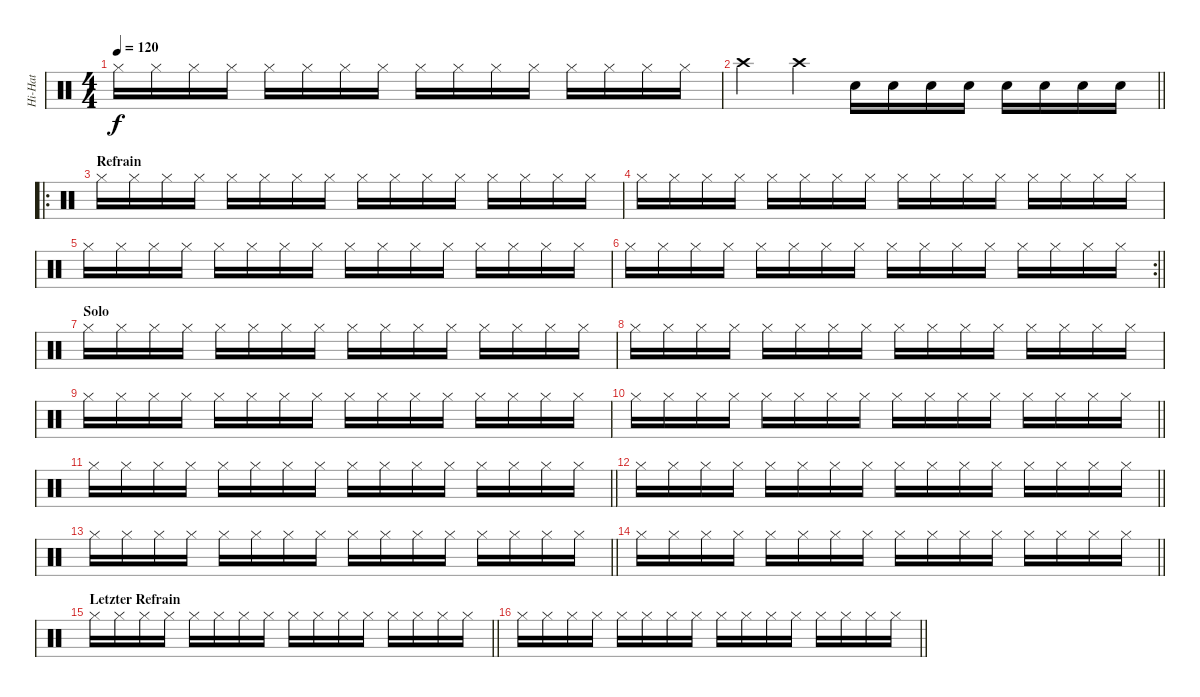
\track ("Hi-Hat" "Hi-Hat") {instrument percussion}
\staff {score}
\articulation defaults
\ts (4 4)
\tempo 120
\clef neutral
\ks c "Hi-Hat (closed)".16{dy f} "Hi-Hat (closed)".16 "Hi-Hat (closed)".16 "Hi-Hat (closed)".16 "Hi-Hat (closed)".16 "Hi-Hat (closed)".16 "Hi-Hat (closed)".16 "Hi-Hat (closed)".16 "Hi-Hat (closed)".16 "Hi-Hat (closed)".16 "Hi-Hat (closed)".16 "Hi-Hat (closed)".16 "Hi-Hat (closed)".16 "Hi-Hat (closed)".16 "Hi-Hat (closed)".16 "Hi-Hat (closed)".16
|
\barLineRight lightlight "Crash high (hit)".4 "Crash high (hit)".4 "Electric Snare (hit)".16 "Electric Snare (hit)".16 "Electric Snare (hit)".16 "Electric Snare (hit)".16 "Electric Snare (hit)".16 "Electric Snare (hit)".16 "Electric Snare (hit)".16 "Electric Snare (hit)".16
|
\ro
\section ("" "Refrain")
"Hi-Hat (closed)".16 "Hi-Hat (closed)".16 "Hi-Hat (closed)".16 "Hi-Hat (closed)".16 "Hi-Hat (closed)".16 "Hi-Hat (closed)".16 "Hi-Hat (closed)".16 "Hi-Hat (closed)".16 "Hi-Hat (closed)".16 "Hi-Hat (closed)".16 "Hi-Hat (closed)".16 "Hi-Hat (closed)".16 "Hi-Hat (closed)".16 "Hi-Hat (closed)".16 "Hi-Hat (closed)".16 "Hi-Hat (closed)".16 |
"Hi-Hat (closed)".16 "Hi-Hat (closed)".16 "Hi-Hat (closed)".16 "Hi-Hat (closed)".16 "Hi-Hat (closed)".16 "Hi-Hat (closed)".16 "Hi-Hat (closed)".16 "Hi-Hat (closed)".16 "Hi-Hat (closed)".16 "Hi-Hat (closed)".16 "Hi-Hat (closed)".16 "Hi-Hat (closed)".16 "Hi-Hat (closed)".16 "Hi-Hat (closed)".16 "Hi-Hat (closed)".16 "Hi-Hat (closed)".16 |
"Hi-Hat (closed)".16 "Hi-Hat (closed)".16 "Hi-Hat (closed)".16 "Hi-Hat (closed)".16 "Hi-Hat (closed)".16 "Hi-Hat (closed)".16 "Hi-Hat (closed)".16 "Hi-Hat (closed)".16 "Hi-Hat (closed)".16 "Hi-Hat (closed)".16 "Hi-Hat (closed)".16 "Hi-Hat (closed)".16 "Hi-Hat (closed)".16 "Hi-Hat (closed)".16 "Hi-Hat (closed)".16 "Hi-Hat (closed)".16 |
\rc 2
\barLineRight lightlight "Hi-Hat (closed)".16 "Hi-Hat (closed)".16 "Hi-Hat (closed)".16 "Hi-Hat (closed)".16 "Hi-Hat (closed)".16 "Hi-Hat (closed)".16 "Hi-Hat (closed)".16 "Hi-Hat (closed)".16 "Hi-Hat (closed)".16 "Hi-Hat (closed)".16 "Hi-Hat (closed)".16 "Hi-Hat (closed)".16 "Hi-Hat (closed)".16 "Hi-Hat (closed)".16 "Hi-Hat (closed)".16 "Hi-Hat (closed)".16
|
\section ("" "Solo")
"Hi-Hat (closed)".16 "Hi-Hat (closed)".16 "Hi-Hat (closed)".16 "Hi-Hat (closed)".16 "Hi-Hat (closed)".16 "Hi-Hat (closed)".16 "Hi-Hat (closed)".16 "Hi-Hat (closed)".16 "Hi-Hat (closed)".16 "Hi-Hat (closed)".16 "Hi-Hat (closed)".16 "Hi-Hat (closed)".16 "Hi-Hat (closed)".16 "Hi-Hat (closed)".16 "Hi-Hat (closed)".16 "Hi-Hat (closed)".16 |
"Hi-Hat (closed)".16 "Hi-Hat (closed)".16 "Hi-Hat (closed)".16 "Hi-Hat (closed)".16 "Hi-Hat (closed)".16 "Hi-Hat (closed)".16 "Hi-Hat (closed)".16 "Hi-Hat (closed)".16 "Hi-Hat (closed)".16 "Hi-Hat (closed)".16 "Hi-Hat (closed)".16 "Hi-Hat (closed)".16 "Hi-Hat (closed)".16 "Hi-Hat (closed)".16 "Hi-Hat (closed)".16 "Hi-Hat (closed)".16 |
"Hi-Hat (closed)".16 "Hi-Hat (closed)".16 "Hi-Hat (closed)".16 "Hi-Hat (closed)".16 "Hi-Hat (closed)".16 "Hi-Hat (closed)".16 "Hi-Hat (closed)".16 "Hi-Hat (closed)".16 "Hi-Hat (closed)".16 "Hi-Hat (closed)".16 "Hi-Hat (closed)".16 "Hi-Hat (closed)".16 "Hi-Hat (closed)".16 "Hi-Hat (closed)".16 "Hi-Hat (closed)".16 "Hi-Hat (closed)".16 |
\barLineRight lightlight "Hi-Hat (closed)".16 "Hi-Hat (closed)".16 "Hi-Hat (closed)".16 "Hi-Hat (closed)".16 "Hi-Hat (closed)".16 "Hi-Hat (closed)".16 "Hi-Hat (closed)".16 "Hi-Hat (closed)".16 "Hi-Hat (closed)".16 "Hi-Hat (closed)".16 "Hi-Hat (closed)".16 "Hi-Hat (closed)".16 "Hi-Hat (closed)".16 "Hi-Hat (closed)".16 "Hi-Hat (closed)".16 "Hi-Hat (closed)".16
|
\barLineRight lightlight "Hi-Hat (closed)".16 "Hi-Hat (closed)".16 "Hi-Hat (closed)".16 "Hi-Hat (closed)".16 "Hi-Hat (closed)".16 "Hi-Hat (closed)".16 "Hi-Hat (closed)".16 "Hi-Hat (closed)".16 "Hi-Hat (closed)".16 "Hi-Hat (closed)".16 "Hi-Hat (closed)".16 "Hi-Hat (closed)".16 "Hi-Hat (closed)".16 "Hi-Hat (closed)".16 "Hi-Hat (closed)".16 "Hi-Hat (closed)".16
|
\barLineRight lightlight "Hi-Hat (closed)".16 "Hi-Hat (closed)".16 "Hi-Hat (closed)".16 "Hi-Hat (closed)".16 "Hi-Hat (closed)".16 "Hi-Hat (closed)".16 "Hi-Hat (closed)".16 "Hi-Hat (closed)".16 "Hi-Hat (closed)".16 "Hi-Hat (closed)".16 "Hi-Hat (closed)".16 "Hi-Hat (closed)".16 "Hi-Hat (closed)".16 "Hi-Hat (closed)".16 "Hi-Hat (closed)".16 "Hi-Hat (closed)".16
|
\barLineRight lightlight "Hi-Hat (closed)".16 "Hi-Hat (closed)".16 "Hi-Hat (closed)".16 "Hi-Hat (closed)".16 "Hi-Hat (closed)".16 "Hi-Hat (closed)".16 "Hi-Hat (closed)".16 "Hi-Hat (closed)".16 "Hi-Hat (closed)".16 "Hi-Hat (closed)".16 "Hi-Hat (closed)".16 "Hi-Hat (closed)".16 "Hi-Hat (closed)".16 "Hi-Hat (closed)".16 "Hi-Hat (closed)".16 "Hi-Hat (closed)".16
|
\barLineRight lightlight "Hi-Hat (closed)".16 "Hi-Hat (closed)".16 "Hi-Hat (closed)".16 "Hi-Hat (closed)".16 "Hi-Hat (closed)".16 "Hi-Hat (closed)".16 "Hi-Hat (closed)".16 "Hi-Hat (closed)".16 "Hi-Hat (closed)".16 "Hi-Hat (closed)".16 "Hi-Hat (closed)".16 "Hi-Hat (closed)".16 "Hi-Hat (closed)".16 "Hi-Hat (closed)".16 "Hi-Hat (closed)".16 "Hi-Hat (closed)".16
|
\section ("" "Letzter Refrain")
\barLineRight lightlight "Hi-Hat (closed)".16 "Hi-Hat (closed)".16 "Hi-Hat (closed)".16 "Hi-Hat (closed)".16 "Hi-Hat (closed)".16 "Hi-Hat (closed)".16 "Hi-Hat (closed)".16 "Hi-Hat (closed)".16 "Hi-Hat (closed)".16 "Hi-Hat (closed)".16 "Hi-Hat (closed)".16 "Hi-Hat (closed)".16 "Hi-Hat (closed)".16 "Hi-Hat (closed)".16 "Hi-Hat (closed)".16 "Hi-Hat (closed)".16
|
\barLineRight lightlight "Hi-Hat (closed)".16 "Hi-Hat (closed)".16 "Hi-Hat (closed)".16 "Hi-Hat (closed)".16 "Hi-Hat (closed)".16 "Hi-Hat (closed)".16 "Hi-Hat (closed)".16 "Hi-Hat (closed)".16 "Hi-Hat (closed)".16 "Hi-Hat (closed)".16 "Hi-Hat (closed)".16 "Hi-Hat (closed)".16 "Hi-Hat (closed)".16 "Hi-Hat (closed)".16 "Hi-Hat (closed)".16 "Hi-Hat (closed)".16
